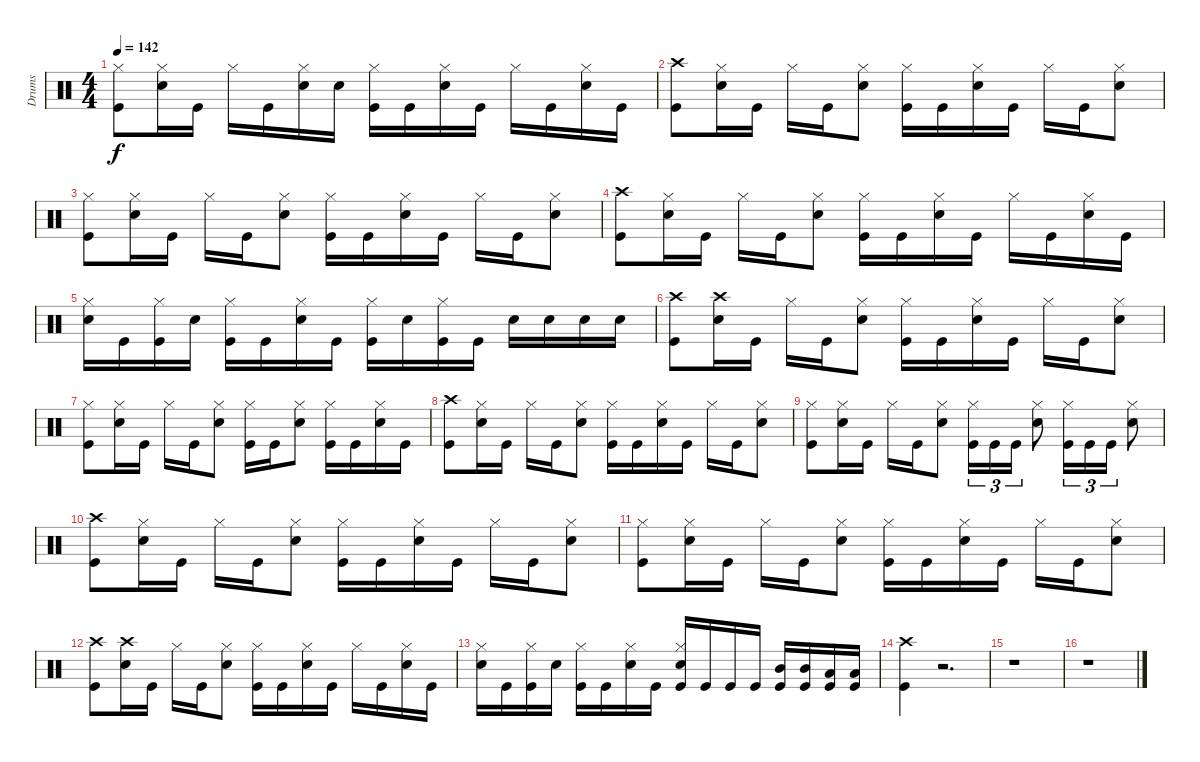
\track ("Drums" "Drums") {instrument percussion}
\staff {score}
\articulation defaults
\ts (4 4)
\tempo 142
\clef neutral
\ks c
("Kick (hit)" "Hi-Hat (closed)").8{dy f} ("Snare (hit) 2" "Hi-Hat (closed)").16 "Kick (hit)".16 "Hi-Hat (closed)".16 "Kick (hit)".16 ("Snare (hit) 2" "Hi-Hat (closed)").16 "Snare (hit) 2".16 ("Kick (hit)" "Hi-Hat (closed)").16 "Kick (hit)".16 ("Snare (hit) 2" "Hi-Hat (closed)").16 "Kick (hit)".16 "Hi-Hat (closed)".16 "Kick (hit)".16 ("Snare (hit) 2" "Hi-Hat (closed)").16 "Kick (hit)".16 |
("Kick (hit)" "Crash high (hit)").8 ("Snare (hit) 2" "Hi-Hat (closed)").16 "Kick (hit)".16 "Hi-Hat (closed)".16 "Kick (hit)".16 ("Snare (hit) 2" "Hi-Hat (closed)").8 ("Kick (hit)" "Hi-Hat (closed)").16 "Kick (hit)".16 ("Snare (hit) 2" "Hi-Hat (closed)").16 "Kick (hit)".16 "Hi-Hat (closed)".16 "Kick (hit)".16 ("Snare (hit) 2" "Hi-Hat (closed)").8 |
("Kick (hit)" "Hi-Hat (closed)").8 ("Snare (hit) 2" "Hi-Hat (closed)").16 "Kick (hit)".16 "Hi-Hat (closed)".16 "Kick (hit)".16 ("Snare (hit) 2" "Hi-Hat (closed)").8 ("Kick (hit)" "Hi-Hat (closed)").16 "Kick (hit)".16 ("Snare (hit) 2" "Hi-Hat (closed)").16 "Kick (hit)".16 "Hi-Hat (closed)".16 "Kick (hit)".16 ("Snare (hit) 2" "Hi-Hat (closed)").8 |
("Crash high (hit)" "Kick (hit)").8 ("Snare (hit) 2" "Hi-Hat (closed)").16 "Kick (hit)".16 "Hi-Hat (closed)".16 "Kick (hit)".16 ("Snare (hit) 2" "Hi-Hat (closed)").8 ("Kick (hit)" "Hi-Hat (closed)").16 "Kick (hit)".16 ("Snare (hit) 2" "Hi-Hat (closed)").16 "Kick (hit)".16 "Hi-Hat (closed)".16 "Kick (hit)".16 ("Snare (hit) 2" "Hi-Hat (closed)").16 "Kick (hit)".16 |
("Snare (hit) 2" "Hi-Hat (closed)").16 "Kick (hit)".16 ("Kick (hit)" "Hi-Hat (closed)").16 "Snare (hit) 2".16 ("Kick (hit)" "Hi-Hat (closed)").16 "Kick (hit)".16 ("Snare (hit) 2" "Hi-Hat (closed)").16 "Kick (hit)".16 ("Kick (hit)" "Hi-Hat (closed)").16 "Snare (hit) 2".16 ("Kick (hit)" "Hi-Hat (closed)").16 "Kick (hit)".16 "Snare (hit) 2".16 "Snare (hit) 2".16 "Snare (hit) 2".16 "Snare (hit) 2".16 |
("Kick (hit)" "Crash high (hit)").8 ("Crash high (hit)" "Snare (hit) 2").16 "Kick (hit)".16 "Hi-Hat (closed)".16 "Kick (hit)".16 ("Snare (hit) 2" "Hi-Hat (closed)").8 ("Kick (hit)" "Hi-Hat (closed)").16 "Kick (hit)".16 ("Snare (hit) 2" "Hi-Hat (closed)").16 "Kick (hit)".16 "Hi-Hat (closed)".16 "Kick (hit)".16 ("Snare (hit) 2" "Hi-Hat (closed)").8 |
("Kick (hit)" "Hi-Hat (closed)").8 ("Snare (hit) 2" "Hi-Hat (closed)").16 "Kick (hit)".16 "Hi-Hat (closed)".16 "Kick (hit)".16 ("Snare (hit) 2" "Hi-Hat (closed)").8 ("Kick (hit)" "Hi-Hat (closed)").16 "Kick (hit)".16 ("Snare (hit) 2" "Hi-Hat (closed)").8 ("Kick (hit)" "Hi-Hat (closed)").16 "Kick (hit)".16 ("Snare (hit) 2" "Hi-Hat (closed)").16 "Kick (hit)".16 |
("Crash high (hit)" "Kick (hit)").8 ("Snare (hit) 2" "Hi-Hat (closed)").16 "Kick (hit)".16 "Hi-Hat (closed)".16 "Kick (hit)".16 ("Snare (hit) 2" "Hi-Hat (closed)").8 ("Kick (hit)" "Hi-Hat (closed)").16 "Kick (hit)".16 ("Snare (hit) 2" "Hi-Hat (closed)").16 "Kick (hit)".16 "Hi-Hat (closed)".16 "Kick (hit)".16 ("Snare (hit) 2" "Hi-Hat (closed)").8 |
("Kick (hit)" "Hi-Hat (closed)").8 ("Snare (hit) 2" "Hi-Hat (closed)").16 "Kick (hit)".16 "Hi-Hat (closed)".16 "Kick (hit)".16 ("Snare (hit) 2" "Hi-Hat (closed)").8 ("Kick (hit)" "Hi-Hat (closed)").16{tu (3 2)} "Kick (hit)".16{tu (3 2)} "Kick (hit)".16{tu (3 2)} ("Snare (hit) 2" "Hi-Hat (closed)").8 ("Kick (hit)" "Hi-Hat (closed)").16{tu (3 2)} "Kick (hit)".16{tu (3 2)} "Kick (hit)".16{tu (3 2)} ("Snare (hit) 2" "Hi-Hat (closed)").8 |
("Kick (hit)" "Crash high (hit)").8 ("Snare (hit) 2" "Hi-Hat (closed)").16 "Kick (hit)".16 "Hi-Hat (closed)".16 "Kick (hit)".16 ("Snare (hit) 2" "Hi-Hat (closed)").8 ("Kick (hit)" "Hi-Hat (closed)").16 "Kick (hit)".16 ("Snare (hit) 2" "Hi-Hat (closed)").16 "Kick (hit)".16 "Hi-Hat (closed)".16 "Kick (hit)".16 ("Snare (hit) 2" "Hi-Hat (closed)").8 |
("Kick (hit)" "Hi-Hat (closed)").8 ("Snare (hit) 2" "Hi-Hat (closed)").16 "Kick (hit)".16 "Hi-Hat (closed)".16 "Kick (hit)".16 ("Snare (hit) 2" "Hi-Hat (closed)").8 ("Kick (hit)" "Hi-Hat (closed)").16 "Kick (hit)".16 ("Snare (hit) 2" "Hi-Hat (closed)").16 "Kick (hit)".16 "Hi-Hat (closed)".16 "Kick (hit)".16 ("Snare (hit) 2" "Hi-Hat (closed)").8 |
("Kick (hit)" "Crash high (hit)").8 ("Crash high (hit)" "Snare (hit) 2").16 "Kick (hit)".16 "Hi-Hat (closed)".16 "Kick (hit)".16 ("Snare (hit) 2" "Hi-Hat (closed)").8 ("Kick (hit)" "Hi-Hat (closed)").16 "Kick (hit)".16 ("Snare (hit) 2" "Hi-Hat (closed)").16 "Kick (hit)".16 "Hi-Hat (closed)".16 "Kick (hit)".16 ("Snare (hit) 2" "Hi-Hat (closed)").16 "Kick (hit)".16 |
("Snare (hit) 2" "Hi-Hat (closed)").16 "Kick (hit)".16 ("Kick (hit)" "Hi-Hat (closed)").16 "Snare (hit) 2".16 ("Kick (hit)" "Hi-Hat (closed)").16 "Kick (hit)".16 ("Snare (hit) 2" "Hi-Hat (closed)").16 "Kick (hit)".16 ("Hi-Hat (closed)" "Snare (hit) 2" "Kick (hit)").16 "Kick (hit)".16 "Kick (hit)".16 "Kick (hit)".16 ("Mid Tom (hit)" "Kick (hit)").16 ("Mid Tom (hit)" "Kick (hit)").16 ("Low Tom (hit)" "Kick (hit)").16 ("Low Tom (hit)" "Kick (hit)").16 |
("Crash high (hit)" "Kick (hit)").4 r.2{d} |
r.1 |
r.1
